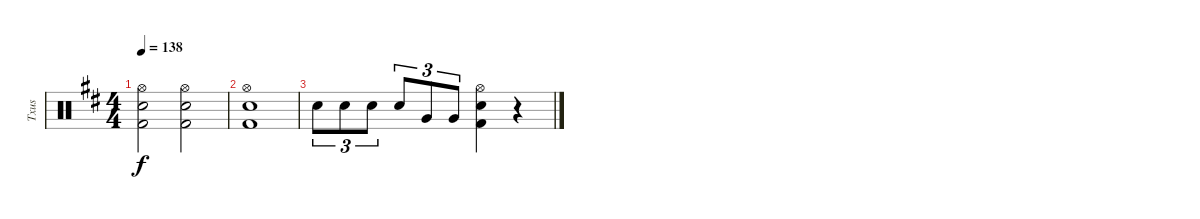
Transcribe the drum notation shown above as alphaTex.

\track ("Txus" "Txus") {instrument percussion}
\staff {score}
\articulation defaults
\ts (4 4)
\tempo 138
\clef neutral
\ks d
("Hi-Hat (open)" "Electric Snare (hit)" "Kick (hit) 2").2{dy f} ("Hi-Hat (open)" "Electric Snare (hit)" "Kick (hit) 2").2 |
("Hi-Hat (open)" "Electric Snare (hit)" "Kick (hit) 2").1 |
"Electric Snare (hit)".8{tu (3 2)} "Electric Snare (hit)".8{tu (3 2)} "Electric Snare (hit)".8{tu (3 2)} "Electric Snare (hit)".8{tu (3 2)} "Very Low Tom (hit)".8{tu (3 2)} "Very Low Tom (hit)".8{tu (3 2)} ("Hi-Hat (open)" "Electric Snare (hit)" "Kick (hit) 2").4 r.4
